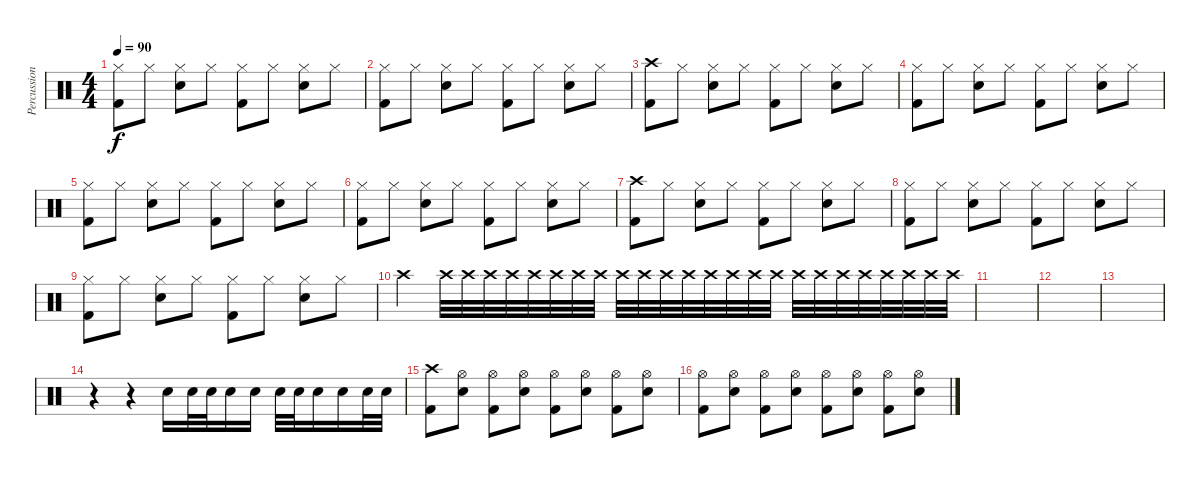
\track ("Percussion" "Percussion") {instrument percussion}
\staff {score}
\articulation defaults
\ts (4 4)
\tempo 90
\clef neutral
\ks c
("Hi-Hat (closed)" "Kick (hit) 2").8{dy f} "Hi-Hat (closed)".8 ("Hi-Hat (closed)" "Snare (hit) 2").8 "Hi-Hat (closed)".8 ("Hi-Hat (closed)" "Kick (hit) 2").8 "Hi-Hat (closed)".8 ("Hi-Hat (closed)" "Snare (hit) 2").8 "Hi-Hat (closed)".8 |
("Hi-Hat (closed)" "Kick (hit) 2").8 "Hi-Hat (closed)".8 ("Hi-Hat (closed)" "Snare (hit) 2").8 "Hi-Hat (closed)".8 ("Hi-Hat (closed)" "Kick (hit) 2").8 "Hi-Hat (closed)".8 ("Hi-Hat (closed)" "Snare (hit) 2").8 "Hi-Hat (closed)".8 |
("Crash high (hit)" "Kick (hit) 2").8 "Hi-Hat (closed)".8 ("Hi-Hat (closed)" "Snare (hit) 2").8 "Hi-Hat (closed)".8 ("Hi-Hat (closed)" "Kick (hit) 2").8 "Hi-Hat (closed)".8 ("Hi-Hat (closed)" "Snare (hit) 2").8 "Hi-Hat (closed)".8 |
("Hi-Hat (closed)" "Kick (hit) 2").8 "Hi-Hat (closed)".8 ("Hi-Hat (closed)" "Snare (hit) 2").8 "Hi-Hat (closed)".8 ("Hi-Hat (closed)" "Kick (hit) 2").8 "Hi-Hat (closed)".8 ("Hi-Hat (closed)" "Snare (hit) 2").8 "Hi-Hat (closed)".8 |
("Hi-Hat (closed)" "Kick (hit) 2").8 "Hi-Hat (closed)".8 ("Hi-Hat (closed)" "Snare (hit) 2").8 "Hi-Hat (closed)".8 ("Hi-Hat (closed)" "Kick (hit) 2").8 "Hi-Hat (closed)".8 ("Hi-Hat (closed)" "Snare (hit) 2").8 "Hi-Hat (closed)".8 |
("Hi-Hat (closed)" "Kick (hit) 2").8 "Hi-Hat (closed)".8 ("Hi-Hat (closed)" "Snare (hit) 2").8 "Hi-Hat (closed)".8 ("Hi-Hat (closed)" "Kick (hit) 2").8 "Hi-Hat (closed)".8 ("Hi-Hat (closed)" "Snare (hit) 2").8 "Hi-Hat (closed)".8 |
("Crash high (hit)" "Kick (hit) 2").8 "Hi-Hat (closed)".8 ("Hi-Hat (closed)" "Snare (hit) 2").8 "Hi-Hat (closed)".8 ("Hi-Hat (closed)" "Kick (hit) 2").8 "Hi-Hat (closed)".8 ("Hi-Hat (closed)" "Snare (hit) 2").8 "Hi-Hat (closed)".8 |
("Hi-Hat (closed)" "Kick (hit) 2").8 "Hi-Hat (closed)".8 ("Hi-Hat (closed)" "Snare (hit) 2").8 "Hi-Hat (closed)".8 ("Hi-Hat (closed)" "Kick (hit) 2").8 "Hi-Hat (closed)".8 ("Hi-Hat (closed)" "Snare (hit) 2").8 "Hi-Hat (closed)".8 |
("Hi-Hat (closed)" "Kick (hit) 2").8 "Hi-Hat (closed)".8 ("Hi-Hat (closed)" "Snare (hit) 2").8 "Hi-Hat (closed)".8 ("Hi-Hat (closed)" "Kick (hit) 2").8 "Hi-Hat (closed)".8 ("Hi-Hat (closed)" "Snare (hit) 2").8 "Hi-Hat (closed)".8 |
"Crash high (hit)".4 "Crash high (hit)".32 "Crash high (hit)".32 "Crash high (hit)".32 "Crash high (hit)".32 "Crash high (hit)".32 "Crash high (hit)".32 "Crash high (hit)".32 "Crash high (hit)".32 "Crash high (hit)".32 "Crash high (hit)".32 "Crash high (hit)".32 "Crash high (hit)".32 "Crash high (hit)".32 "Crash high (hit)".32 "Crash high (hit)".32 "Crash high (hit)".32 "Crash high (hit)".32 "Crash high (hit)".32 "Crash high (hit)".32 "Crash high (hit)".32 "Crash high (hit)".32 "Crash high (hit)".32 "Crash high (hit)".32 "Crash high (hit)".32 |
|
|
|
r.4 r.4 "Snare (hit) 2".16 "Snare (hit) 2".32 "Snare (hit) 2".32 "Snare (hit) 2".16 "Snare (hit) 2".16 "Snare (hit) 2".32 "Snare (hit) 2".32 "Snare (hit) 2".16 "Snare (hit) 2".16 "Snare (hit) 2".32 "Snare (hit) 2".32 |
("Crash high (hit)" "Kick (hit) 2").8 ("Hi-Hat (open)" "Snare (hit) 2").8 ("Hi-Hat (open)" "Kick (hit) 2").8 ("Hi-Hat (open)" "Snare (hit) 2").8 ("Hi-Hat (open)" "Kick (hit) 2").8 ("Hi-Hat (open)" "Snare (hit) 2").8 ("Hi-Hat (open)" "Kick (hit) 2").8 ("Hi-Hat (open)" "Snare (hit) 2").8 |
("Hi-Hat (open)" "Kick (hit) 2").8 ("Hi-Hat (open)" "Snare (hit) 2").8 ("Hi-Hat (open)" "Kick (hit) 2").8 ("Hi-Hat (open)" "Snare (hit) 2").8 ("Hi-Hat (open)" "Kick (hit) 2").8 ("Hi-Hat (open)" "Snare (hit) 2").8 ("Hi-Hat (open)" "Kick (hit) 2").8 ("Hi-Hat (open)" "Snare (hit) 2").8
